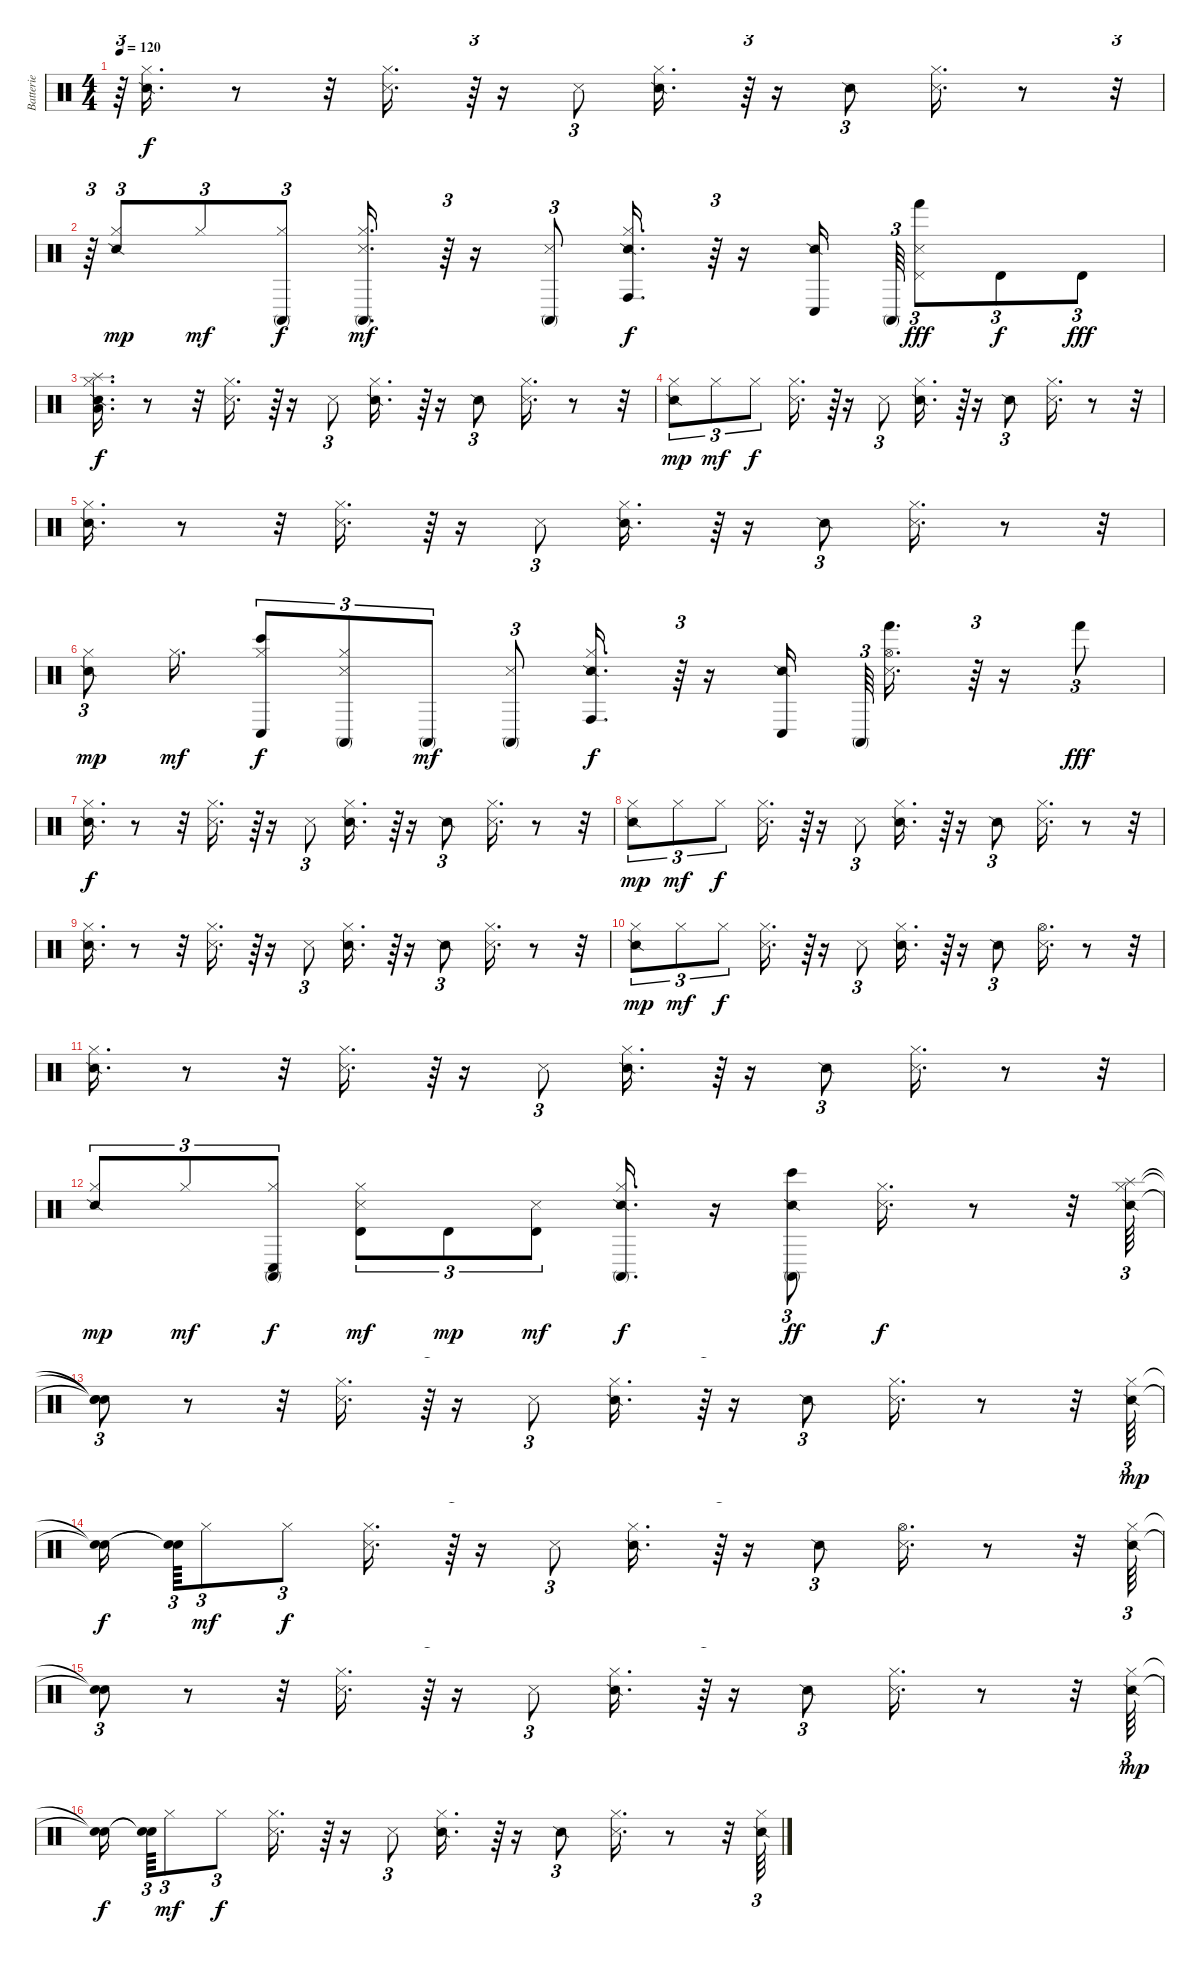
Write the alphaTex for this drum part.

\track ("Batterie" "Batterie") {instrument percussion}
\staff {score}
\articulation defaults
\ts (4 4)
\tempo 120
\clef neutral
\ks c
r.64{tu (3 2) dy f} ("Snare (side stick) 2" "Hi-Hat (closed)").16{d} r.8 r.32 ("Metronome (hit)" "Hi-Hat (closed)").16{d} r.64{tu (3 2)} r.16 "Snare (side stick) 3".8{tu (3 2)} ("Snare (side stick) 2" "Hi-Hat (closed)").16{d} r.64{tu (3 2)} r.16 "Snare (side stick) 2".8{tu (3 2)} ("Snare (side stick) 3" "Hi-Hat (closed)").16{d} r.8 r.32{tu (3 2)} |
r.64{tu (3 2)} ("Hi-Hat (closed)" "Snare (side stick) 2").8{tu (3 2) dy mp} "Hi-Hat (closed)".8{tu (3 2) dy mf} ("Hi-Hat (closed)" "Conga high (mute)").8{tu (3 2) dy f} ("Metronome (hit)" "Hi-Hat (closed)" "Conga high (mute)").16{d dy mf} r.64{tu (3 2)} r.16 ("Snare (side stick) 3" "Conga high (mute)").8{tu (3 2)} ("Snare (side stick) 2" "Hi-Hat (closed)" "Conga high (hit)").16{d dy f} r.64{tu (3 2)} r.16 ("Snare (side stick) 2" "Conga low (hit)").16 "Conga high (mute)".64{tu (3 2)} ("Snare (side stick) 3" "Pedal Hi-Hat (hit)" "Hand (hit)").8{tu (3 2) dy fff} "Timbale high (hit)".8{tu (3 2) dy f} "Timbale high (hit)".8{tu (3 2) dy fff} |
("Snare (side stick) 2" "Hi-Hat (closed)" "Splash (hit)" "Low Floor Tom (hit)").16{d dy f} r.8 r.32 ("Metronome (hit)" "Hi-Hat (closed)").16{d} r.64{tu (3 2)} r.16 "Snare (side stick) 3".8{tu (3 2)} ("Snare (side stick) 2" "Hi-Hat (closed)").16{d} r.64{tu (3 2)} r.16 "Snare (side stick) 2".8{tu (3 2)} ("Snare (side stick) 3" "Hi-Hat (closed)").16{d} r.8 r.32 |
("Hi-Hat (closed)" "Snare (side stick) 2").8{tu (3 2) dy mp} "Hi-Hat (closed)".8{tu (3 2) dy mf} "Hi-Hat (closed)".8{tu (3 2) dy f} ("Metronome (hit)" "Hi-Hat (closed)").16{d} r.64{tu (3 2)} r.16 "Snare (side stick) 3".8{tu (3 2)} ("Snare (side stick) 2" "Hi-Hat (closed)").16{d} r.64{tu (3 2)} r.16 "Snare (side stick) 2".8{tu (3 2)} ("Snare (side stick) 3" "Hi-Hat (closed)").16{d} r.8 r.32 |
("Snare (side stick) 2" "Hi-Hat (closed)").16{d} r.8 r.32 ("Metronome (hit)" "Hi-Hat (closed)").16{d} r.64{tu (3 2)} r.16 "Snare (side stick) 3".8{tu (3 2)} ("Snare (side stick) 2" "Hi-Hat (closed)").16{d} r.64{tu (3 2)} r.16 "Snare (side stick) 2".8{tu (3 2)} ("Snare (side stick) 3" "Hi-Hat (closed)").16{d} r.8 r.32 |
("Hi-Hat (closed)" "Snare (side stick) 2").8{tu (3 2) dy mp} "Hi-Hat (closed)".16{d dy mf} ("Bongo High (hit)" "Hi-Hat (closed)" "Conga low (hit)").8{tu (3 2) dy f} ("Metronome (hit)" "Hi-Hat (closed)" "Conga high (mute)").8{tu (3 2)} "Conga high (mute)".8{tu (3 2) dy mf} ("Snare (side stick) 3" "Conga high (mute)").8{tu (3 2)} ("Snare (side stick) 2" "Hi-Hat (closed)" "Conga high (hit)").16{d dy f} r.64{tu (3 2)} r.16 ("Snare (side stick) 2" "Conga low (hit)").16 "Conga high (mute)".64{tu (3 2)} ("Snare (side stick) 3" "Hi-Hat (open)" "Hand (hit)").16{d} r.64{tu (3 2)} r.16 "Hand (hit)".8{tu (3 2) dy fff} |
("Snare (side stick) 2" "Hi-Hat (closed)").16{d dy f} r.8 r.32 ("Metronome (hit)" "Hi-Hat (closed)").16{d} r.64{tu (3 2)} r.16 "Snare (side stick) 3".8{tu (3 2)} ("Snare (side stick) 2" "Hi-Hat (closed)").16{d} r.64{tu (3 2)} r.16 "Snare (side stick) 2".8{tu (3 2)} ("Snare (side stick) 3" "Hi-Hat (closed)").16{d} r.8 r.32 |
("Hi-Hat (closed)" "Snare (side stick) 2").8{tu (3 2) dy mp} "Hi-Hat (closed)".8{tu (3 2) dy mf} "Hi-Hat (closed)".8{tu (3 2) dy f} ("Metronome (hit)" "Hi-Hat (closed)").16{d} r.64{tu (3 2)} r.16 "Snare (side stick) 3".8{tu (3 2)} ("Snare (side stick) 2" "Hi-Hat (closed)").16{d} r.64{tu (3 2)} r.16 "Snare (side stick) 2".8{tu (3 2)} ("Snare (side stick) 3" "Hi-Hat (closed)").16{d} r.8 r.32 |
("Snare (side stick) 2" "Hi-Hat (closed)").16{d} r.8 r.32 ("Metronome (hit)" "Hi-Hat (closed)").16{d} r.64{tu (3 2)} r.16 "Snare (side stick) 3".8{tu (3 2)} ("Snare (side stick) 2" "Hi-Hat (closed)").16{d} r.64{tu (3 2)} r.16 "Snare (side stick) 2".8{tu (3 2)} ("Snare (side stick) 3" "Hi-Hat (closed)").16{d} r.8 r.32 |
("Hi-Hat (closed)" "Snare (side stick) 2").8{tu (3 2) dy mp} "Hi-Hat (closed)".8{tu (3 2) dy mf} "Hi-Hat (closed)".8{tu (3 2) dy f} ("Metronome (hit)" "Hi-Hat (closed)").16{d} r.64{tu (3 2)} r.16 "Snare (side stick) 3".8{tu (3 2)} ("Snare (side stick) 2" "Hi-Hat (closed)").16{d} r.64{tu (3 2)} r.16 "Snare (side stick) 2".8{tu (3 2)} ("Snare (side stick) 3" "Hi-Hat (open)").16{d} r.8 r.32 |
("Snare (side stick) 2" "Hi-Hat (closed)").16{d} r.8 r.32 ("Metronome (hit)" "Hi-Hat (closed)").16{d} r.64{tu (3 2)} r.16 "Snare (side stick) 3".8{tu (3 2)} ("Snare (side stick) 2" "Hi-Hat (closed)").16{d} r.64{tu (3 2)} r.16 "Snare (side stick) 2".8{tu (3 2)} ("Snare (side stick) 3" "Hi-Hat (closed)").16{d} r.8 r.32 |
("Hi-Hat (closed)" "Snare (side stick) 2").8{tu (3 2) dy mp} "Hi-Hat (closed)".8{tu (3 2) dy mf} ("Hi-Hat (closed)" "Conga low (hit)" "Conga high (mute)").8{tu (3 2) dy f} ("Metronome (hit)" "Hi-Hat (closed)" "Timbale high (hit)").8{tu (3 2) dy mf} "Timbale high (hit)".8{tu (3 2) dy mp} ("Snare (side stick) 3" "Timbale high (hit)").8{tu (3 2) dy mf} ("Snare (side stick) 2" "Hi-Hat (closed)" "Conga high (mute)").16{d dy f} r.16 ("Bongo High (hit)" "Snare (side stick) 2" "Conga high (mute)").8{tu (3 2) dy ff} ("Snare (side stick) 3" "Hi-Hat (closed)").16{d dy f} r.8 r.32 ("Snare (side stick) 2" "Hi-Hat (closed)" "Splash (hit)").64{tu (3 2)} |
("Snare (hit)"{t} "Snare (hit)"{t} "Snare (hit)"{t}).8{tu (3 2)} r.8 r.32 ("Metronome (hit)" "Hi-Hat (closed)").16{d} r.64{tu (3 2)} r.16 "Snare (side stick) 3".8{tu (3 2)} ("Snare (side stick) 2" "Hi-Hat (closed)").16{d} r.64{tu (3 2)} r.16 "Snare (side stick) 2".8{tu (3 2)} ("Snare (side stick) 3" "Hi-Hat (closed)").16{d} r.8 r.32 ("Hi-Hat (closed)" "Snare (side stick) 2").64{tu (3 2) dy mp} |
("Snare (hit)"{t} "Snare (hit)"{t}).16{dy f beam splitsecondary} ("Snare (hit)"{t} "Snare (hit)"{t}).64{tu (3 2)} "Hi-Hat (closed)".8{tu (3 2) dy mf} "Hi-Hat (closed)".8{tu (3 2) dy f} ("Metronome (hit)" "Hi-Hat (closed)").16{d} r.64{tu (3 2)} r.16 "Snare (side stick) 3".8{tu (3 2)} ("Snare (side stick) 2" "Hi-Hat (closed)").16{d} r.64{tu (3 2)} r.16 "Snare (side stick) 2".8{tu (3 2)} ("Snare (side stick) 3" "Hi-Hat (open)").16{d} r.8 r.32 ("Snare (side stick) 2" "Hi-Hat (closed)").64{tu (3 2)} |
("Snare (hit)"{t} "Snare (hit)"{t}).8{tu (3 2)} r.8 r.32 ("Metronome (hit)" "Hi-Hat (closed)").16{d} r.64{tu (3 2)} r.16 "Snare (side stick) 3".8{tu (3 2)} ("Snare (side stick) 2" "Hi-Hat (closed)").16{d} r.64{tu (3 2)} r.16 "Snare (side stick) 2".8{tu (3 2)} ("Snare (side stick) 3" "Hi-Hat (closed)").16{d} r.8 r.32 ("Hi-Hat (closed)" "Snare (side stick) 2").64{tu (3 2) dy mp} |
("Snare (hit)"{t} "Snare (hit)"{t}).16{dy f beam splitsecondary} ("Snare (hit)"{t} "Snare (hit)"{t}).64{tu (3 2)} "Hi-Hat (closed)".8{tu (3 2) dy mf} "Hi-Hat (closed)".8{tu (3 2) dy f} ("Metronome (hit)" "Hi-Hat (closed)").16{d} r.64{tu (3 2)} r.16 "Snare (side stick) 3".8{tu (3 2)} ("Snare (side stick) 2" "Hi-Hat (closed)").16{d} r.64{tu (3 2)} r.16 "Snare (side stick) 2".8{tu (3 2)} ("Snare (side stick) 3" "Hi-Hat (closed)").16{d} r.8 r.32 ("Snare (side stick) 2" "Hi-Hat (closed)").64{tu (3 2)}
